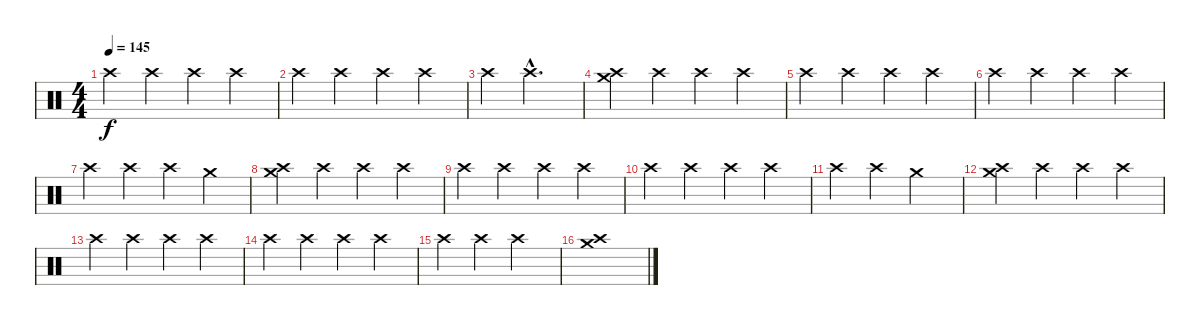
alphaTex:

\track "" {instrument percussion}
\staff {score}
\articulation defaults
\ts (4 4)
\tempo 145
\clef neutral
\ks c "Crash high (hit)".4{dy f} "Crash high (hit)".4 "Crash high (hit)".4 "Crash high (hit)".4
|
"Crash high (hit)".4 "Crash high (hit)".4 "Crash high (hit)".4 "Crash high (hit)".4 |
"Crash high (hit)".4 "Crash high (hit)"{hac}.2{d} |
("Crash medium (hit)" "Crash high (hit)").4 "Crash high (hit)".4 "Crash high (hit)".4 "Crash high (hit)".4 |
"Crash high (hit)".4 "Crash high (hit)".4 "Crash high (hit)".4 "Crash high (hit)".4 |
"Crash high (hit)".4 "Crash high (hit)".4 "Crash high (hit)".4 "Crash high (hit)".4 |
"Crash high (hit)".4 "Crash high (hit)".4 "Crash high (hit)".4 "Crash medium (hit)".4 |
("Crash medium (hit)" "Crash high (hit)").4 "Crash high (hit)".4 "Crash high (hit)".4 "Crash high (hit)".4 |
"Crash high (hit)".4 "Crash high (hit)".4 "Crash high (hit)".4 "Crash high (hit)".4 |
"Crash high (hit)".4 "Crash high (hit)".4 "Crash high (hit)".4 "Crash high (hit)".4 |
"Crash high (hit)".4 "Crash high (hit)".4 "Crash medium (hit)".2 |
("Crash medium (hit)" "Crash high (hit)").4 "Crash high (hit)".4 "Crash high (hit)".4 "Crash high (hit)".4 |
"Crash high (hit)".4 "Crash high (hit)".4 "Crash high (hit)".4 "Crash high (hit)".4 |
"Crash high (hit)".4 "Crash high (hit)".4 "Crash high (hit)".4 "Crash high (hit)".4 |
"Crash high (hit)".4 "Crash high (hit)".4 "Crash high (hit)".2 |
("Crash medium (hit)" "Crash high (hit)").1
